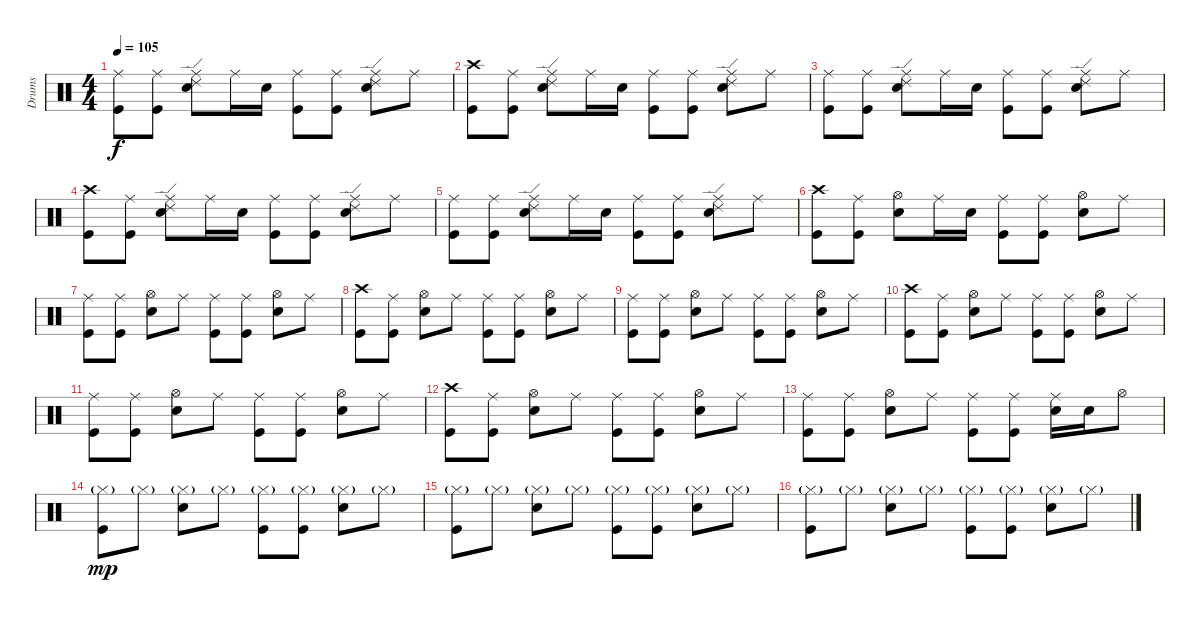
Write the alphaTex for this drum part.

\track ("Drums" "Drums") {instrument percussion}
\staff {score}
\articulation defaults
\ts (4 4)
\tempo 105
\clef neutral
\ks c
("Ride (middle)" "Kick (hit)").8{dy f} ("Ride (middle)" "Kick (hit)").8 ("Ride (middle)" "Ride (edge) 2" "Snare (hit) 2").8 "Ride (middle)".16 "Snare (hit) 2".16 ("Ride (middle)" "Kick (hit)").8 ("Ride (middle)" "Kick (hit)").8 ("Ride (middle)" "Ride (edge) 2" "Snare (hit) 2").8 "Ride (middle)".8 |
("Crash high (hit)" "Kick (hit)").8 ("Ride (middle)" "Kick (hit)").8 ("Ride (middle)" "Ride (edge) 2" "Snare (hit) 2").8 "Ride (middle)".16 "Snare (hit) 2".16 ("Ride (middle)" "Kick (hit)").8 ("Ride (middle)" "Kick (hit)").8 ("Ride (middle)" "Ride (edge) 2" "Snare (hit) 2").8 "Ride (middle)".8 |
("Ride (middle)" "Kick (hit)").8 ("Ride (middle)" "Kick (hit)").8 ("Ride (middle)" "Ride (edge) 2" "Snare (hit) 2").8 "Ride (middle)".16 "Snare (hit) 2".16 ("Ride (middle)" "Kick (hit)").8 ("Ride (middle)" "Kick (hit)").8 ("Ride (middle)" "Ride (edge) 2" "Snare (hit) 2").8 "Ride (middle)".8 |
("Crash high (hit)" "Kick (hit)").8 ("Ride (middle)" "Kick (hit)").8 ("Ride (middle)" "Ride (edge) 2" "Snare (hit) 2").8 "Ride (middle)".16 "Snare (hit) 2".16 ("Ride (middle)" "Kick (hit)").8 ("Ride (middle)" "Kick (hit)").8 ("Ride (middle)" "Ride (edge) 2" "Snare (hit) 2").8 "Ride (middle)".8 |
("Ride (middle)" "Kick (hit)").8 ("Ride (middle)" "Kick (hit)").8 ("Ride (middle)" "Ride (edge) 2" "Snare (hit) 2").8 "Ride (middle)".16 "Snare (hit) 2".16 ("Ride (middle)" "Kick (hit)").8 ("Ride (middle)" "Kick (hit)").8 ("Ride (middle)" "Ride (edge) 2" "Snare (hit) 2").8 "Ride (middle)".8 |
("Crash high (hit)" "Kick (hit)").8 ("Ride (middle)" "Kick (hit)").8 ("Hi-Hat (open)" "Snare (hit) 2").8 "Ride (middle)".16 "Snare (hit) 2".16 ("Ride (middle)" "Kick (hit)").8 ("Ride (middle)" "Kick (hit)").8 ("Hi-Hat (open)" "Snare (hit) 2").8 "Ride (middle)".8 |
("Ride (middle)" "Kick (hit)").8 ("Ride (middle)" "Kick (hit)").8 ("Hi-Hat (open)" "Snare (hit) 2").8 "Ride (middle)".8 ("Ride (middle)" "Kick (hit)").8 ("Ride (middle)" "Kick (hit)").8 ("Hi-Hat (open)" "Snare (hit) 2").8 "Ride (middle)".8 |
("Crash high (hit)" "Kick (hit)").8 ("Ride (middle)" "Kick (hit)").8 ("Hi-Hat (open)" "Snare (hit) 2").8 "Ride (middle)".8 ("Ride (middle)" "Kick (hit)").8 ("Ride (middle)" "Kick (hit)").8 ("Hi-Hat (open)" "Snare (hit) 2").8 "Ride (middle)".8 |
("Ride (middle)" "Kick (hit)").8 ("Ride (middle)" "Kick (hit)").8 ("Hi-Hat (open)" "Snare (hit) 2").8 "Ride (middle)".8 ("Ride (middle)" "Kick (hit)").8 ("Ride (middle)" "Kick (hit)").8 ("Hi-Hat (open)" "Snare (hit) 2").8 "Ride (middle)".8 |
("Crash high (hit)" "Kick (hit)").8 ("Ride (middle)" "Kick (hit)").8 ("Hi-Hat (open)" "Snare (hit) 2").8 "Ride (middle)".8 ("Ride (middle)" "Kick (hit)").8 ("Ride (middle)" "Kick (hit)").8 ("Hi-Hat (open)" "Snare (hit) 2").8 "Ride (middle)".8 |
("Ride (middle)" "Kick (hit)").8 ("Ride (middle)" "Kick (hit)").8 ("Hi-Hat (open)" "Snare (hit) 2").8 "Ride (middle)".8 ("Ride (middle)" "Kick (hit)").8 ("Ride (middle)" "Kick (hit)").8 ("Hi-Hat (open)" "Snare (hit) 2").8 "Ride (middle)".8 |
("Crash high (hit)" "Kick (hit)").8 ("Ride (middle)" "Kick (hit)").8 ("Hi-Hat (open)" "Snare (hit) 2").8 "Ride (middle)".8 ("Ride (middle)" "Kick (hit)").8 ("Ride (middle)" "Kick (hit)").8 ("Hi-Hat (open)" "Snare (hit) 2").8 "Ride (middle)".8 |
("Ride (middle)" "Kick (hit)").8 ("Ride (middle)" "Kick (hit)").8 ("Hi-Hat (open)" "Snare (hit) 2").8 "Ride (middle)".8 ("Ride (middle)" "Kick (hit)").8 ("Ride (middle)" "Kick (hit)").8 ("Ride (middle)" "Snare (hit) 2").16 "Snare (hit) 2".16 "Hi-Hat (open)".8 |
("Hi-Hat (closed)"{g} "Kick (hit)").8{dy mp} "Hi-Hat (closed)"{g}.8 ("Hi-Hat (closed)"{g} "Snare (hit) 2").8 "Hi-Hat (closed)"{g}.8 ("Hi-Hat (closed)"{g} "Kick (hit)").8 ("Hi-Hat (closed)"{g} "Kick (hit)").8 ("Hi-Hat (closed)"{g} "Snare (hit) 2").8 "Hi-Hat (closed)"{g}.8 |
("Hi-Hat (closed)"{g} "Kick (hit)").8 "Hi-Hat (closed)"{g}.8 ("Hi-Hat (closed)"{g} "Snare (hit) 2").8 "Hi-Hat (closed)"{g}.8 ("Hi-Hat (closed)"{g} "Kick (hit)").8 ("Hi-Hat (closed)"{g} "Kick (hit)").8 ("Hi-Hat (closed)"{g} "Snare (hit) 2").8 "Hi-Hat (closed)"{g}.8 |
("Hi-Hat (closed)"{g} "Kick (hit)").8 "Hi-Hat (closed)"{g}.8 ("Hi-Hat (closed)"{g} "Snare (hit) 2").8 "Hi-Hat (closed)"{g}.8 ("Hi-Hat (closed)"{g} "Kick (hit)").8 ("Hi-Hat (closed)"{g} "Kick (hit)").8 ("Hi-Hat (closed)"{g} "Snare (hit) 2").8 "Hi-Hat (closed)"{g}.8
